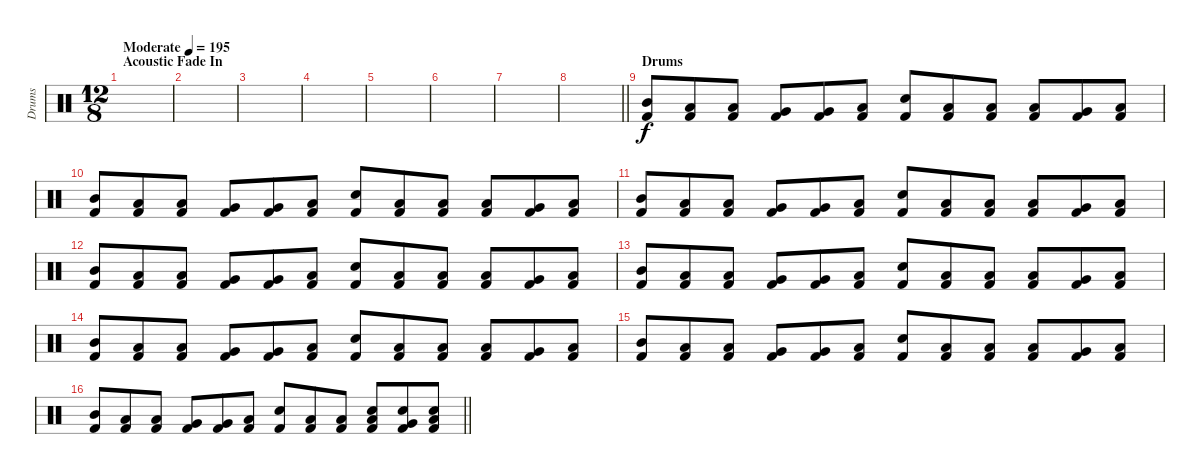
\track ("Drums" "Drums") {instrument percussion}
\staff {score}
\articulation defaults
\ts (12 8)
\section ("" "Acoustic Fade In")
\tempo (195 "Moderate")
\clef neutral
\ks c
|
|
|
|
|
|
|
\barLineRight lightlight
|
\section ("" "Drums")
("Mid Tom (hit)" "Kick (hit) 2").8 ("Low Tom (hit)" "Kick (hit) 2").8 ("Low Tom (hit)" "Kick (hit) 2").8 ("Very Low Tom (hit)" "Kick (hit) 2").8 ("Very Low Tom (hit)" "Kick (hit) 2").8 ("Low Floor Tom (hit)" "Kick (hit) 2").8 ("Snare (hit) 2" "Kick (hit) 2").8 ("Low Floor Tom (hit)" "Kick (hit) 2").8 ("Low Floor Tom (hit)" "Kick (hit) 2").8 ("Low Tom (hit)" "Kick (hit) 2").8 ("Very Low Tom (hit)" "Kick (hit) 2").8 ("Low Floor Tom (hit)" "Kick (hit) 2").8 |
("Mid Tom (hit)" "Kick (hit) 2").8 ("Low Tom (hit)" "Kick (hit) 2").8 ("Low Tom (hit)" "Kick (hit) 2").8 ("Very Low Tom (hit)" "Kick (hit) 2").8 ("Very Low Tom (hit)" "Kick (hit) 2").8 ("Low Floor Tom (hit)" "Kick (hit) 2").8 ("Snare (hit) 2" "Kick (hit) 2").8 ("Low Floor Tom (hit)" "Kick (hit) 2").8 ("Low Floor Tom (hit)" "Kick (hit) 2").8 ("Low Tom (hit)" "Kick (hit) 2").8 ("Very Low Tom (hit)" "Kick (hit) 2").8 ("Low Floor Tom (hit)" "Kick (hit) 2").8 |
("Mid Tom (hit)" "Kick (hit) 2").8 ("Low Tom (hit)" "Kick (hit) 2").8 ("Low Tom (hit)" "Kick (hit) 2").8 ("Very Low Tom (hit)" "Kick (hit) 2").8 ("Very Low Tom (hit)" "Kick (hit) 2").8 ("Low Floor Tom (hit)" "Kick (hit) 2").8 ("Snare (hit) 2" "Kick (hit) 2").8 ("Low Floor Tom (hit)" "Kick (hit) 2").8 ("Low Floor Tom (hit)" "Kick (hit) 2").8 ("Low Tom (hit)" "Kick (hit) 2").8 ("Very Low Tom (hit)" "Kick (hit) 2").8 ("Low Floor Tom (hit)" "Kick (hit) 2").8 |
("Mid Tom (hit)" "Kick (hit) 2").8 ("Low Tom (hit)" "Kick (hit) 2").8 ("Low Tom (hit)" "Kick (hit) 2").8 ("Very Low Tom (hit)" "Kick (hit) 2").8 ("Very Low Tom (hit)" "Kick (hit) 2").8 ("Low Floor Tom (hit)" "Kick (hit) 2").8 ("Snare (hit) 2" "Kick (hit) 2").8 ("Low Floor Tom (hit)" "Kick (hit) 2").8 ("Low Floor Tom (hit)" "Kick (hit) 2").8 ("Low Tom (hit)" "Kick (hit) 2").8 ("Very Low Tom (hit)" "Kick (hit) 2").8 ("Low Floor Tom (hit)" "Kick (hit) 2").8 |
("Mid Tom (hit)" "Kick (hit) 2").8 ("Low Tom (hit)" "Kick (hit) 2").8 ("Low Tom (hit)" "Kick (hit) 2").8 ("Very Low Tom (hit)" "Kick (hit) 2").8 ("Very Low Tom (hit)" "Kick (hit) 2").8 ("Low Floor Tom (hit)" "Kick (hit) 2").8 ("Snare (hit) 2" "Kick (hit) 2").8 ("Low Floor Tom (hit)" "Kick (hit) 2").8 ("Low Floor Tom (hit)" "Kick (hit) 2").8 ("Low Tom (hit)" "Kick (hit) 2").8 ("Very Low Tom (hit)" "Kick (hit) 2").8 ("Low Floor Tom (hit)" "Kick (hit) 2").8 |
("Mid Tom (hit)" "Kick (hit) 2").8 ("Low Tom (hit)" "Kick (hit) 2").8 ("Low Tom (hit)" "Kick (hit) 2").8 ("Very Low Tom (hit)" "Kick (hit) 2").8 ("Very Low Tom (hit)" "Kick (hit) 2").8 ("Low Floor Tom (hit)" "Kick (hit) 2").8 ("Snare (hit) 2" "Kick (hit) 2").8 ("Low Floor Tom (hit)" "Kick (hit) 2").8 ("Low Floor Tom (hit)" "Kick (hit) 2").8 ("Low Tom (hit)" "Kick (hit) 2").8 ("Very Low Tom (hit)" "Kick (hit) 2").8 ("Low Floor Tom (hit)" "Kick (hit) 2").8 |
("Mid Tom (hit)" "Kick (hit) 2").8 ("Low Tom (hit)" "Kick (hit) 2").8 ("Low Tom (hit)" "Kick (hit) 2").8 ("Very Low Tom (hit)" "Kick (hit) 2").8 ("Very Low Tom (hit)" "Kick (hit) 2").8 ("Low Floor Tom (hit)" "Kick (hit) 2").8 ("Snare (hit) 2" "Kick (hit) 2").8 ("Low Floor Tom (hit)" "Kick (hit) 2").8 ("Low Floor Tom (hit)" "Kick (hit) 2").8 ("Low Tom (hit)" "Kick (hit) 2").8 ("Very Low Tom (hit)" "Kick (hit) 2").8 ("Low Floor Tom (hit)" "Kick (hit) 2").8 |
\barLineRight lightlight
("Mid Tom (hit)" "Kick (hit) 2").8 ("Low Tom (hit)" "Kick (hit) 2").8 ("Low Tom (hit)" "Kick (hit) 2").8 ("Very Low Tom (hit)" "Kick (hit) 2").8 ("Very Low Tom (hit)" "Kick (hit) 2").8 ("Low Floor Tom (hit)" "Kick (hit) 2").8 ("Snare (hit) 2" "Kick (hit) 2").8 ("Low Floor Tom (hit)" "Kick (hit) 2").8 ("Low Floor Tom (hit)" "Kick (hit) 2").8 ("Low Tom (hit)" "Snare (hit) 2" "Kick (hit) 2").8 ("Very Low Tom (hit)" "Snare (hit) 2" "Kick (hit) 2").8 ("Low Floor Tom (hit)" "Snare (hit) 2" "Kick (hit) 2").8
